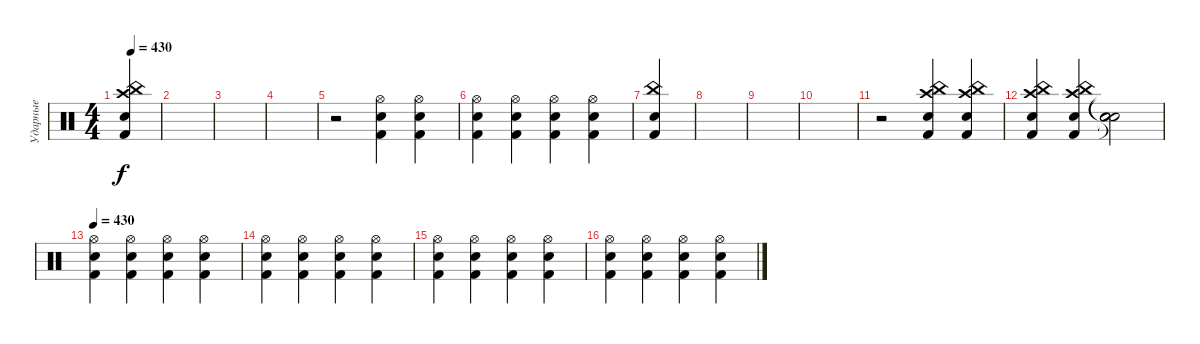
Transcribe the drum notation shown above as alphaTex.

\track ("Ударные" "Ударные") {instrument percussion}
\staff {score}
\articulation defaults
\ts (4 4)
\tempo 430
\clef neutral
\ks c
("Kick (hit) 2" "Crash high (hit)" "China (hit)" "Electric Snare (hit)").4{dy f} |
|
|
|
r.2 ("Electric Snare (hit)" "Hi-Hat (open)" "Kick (hit) 2").4 ("Hi-Hat (open)" "Kick (hit) 2" "Electric Snare (hit)").4 |
("Kick (hit) 2" "Electric Snare (hit)" "Hi-Hat (open)").4 ("Hi-Hat (open)" "Kick (hit) 2" "Electric Snare (hit)").4 ("Electric Snare (hit)" "Kick (hit) 2" "Hi-Hat (open)").4 ("Hi-Hat (open)" "Kick (hit) 2" "Electric Snare (hit)").4 |
("China (hit)" "Electric Snare (hit)" "Kick (hit) 2").4 |
|
|
|
r.2 ("Electric Snare (hit)" "Kick (hit) 2" "Crash high (hit)" "China (hit)").4 ("China (hit)" "Crash high (hit)" "Kick (hit) 2" "Electric Snare (hit)").4 |
("Electric Snare (hit)" "Kick (hit) 2" "Crash high (hit)" "China (hit)").4 ("China (hit)" "Crash high (hit)" "Kick (hit) 2" "Electric Snare (hit)").4 ("Snare (hit)"{t} "Snare (hit)"{t} "Snare (hit)"{t} "Snare (hit)"{t}).2 |
\tempo 430
("Kick (hit) 2" "Electric Snare (hit)" "Hi-Hat (open)").4 ("Hi-Hat (open)" "Kick (hit) 2" "Electric Snare (hit)").4 ("Electric Snare (hit)" "Kick (hit) 2" "Hi-Hat (open)").4 ("Hi-Hat (open)" "Kick (hit) 2" "Electric Snare (hit)").4 |
("Kick (hit) 2" "Electric Snare (hit)" "Hi-Hat (open)").4 ("Hi-Hat (open)" "Kick (hit) 2" "Electric Snare (hit)").4 ("Electric Snare (hit)" "Kick (hit) 2" "Hi-Hat (open)").4 ("Hi-Hat (open)" "Kick (hit) 2" "Electric Snare (hit)").4 |
("Kick (hit) 2" "Electric Snare (hit)" "Hi-Hat (open)").4 ("Hi-Hat (open)" "Kick (hit) 2" "Electric Snare (hit)").4 ("Electric Snare (hit)" "Kick (hit) 2" "Hi-Hat (open)").4 ("Hi-Hat (open)" "Kick (hit) 2" "Electric Snare (hit)").4 |
("Kick (hit) 2" "Electric Snare (hit)" "Hi-Hat (open)").4 ("Hi-Hat (open)" "Kick (hit) 2" "Electric Snare (hit)").4 ("Electric Snare (hit)" "Kick (hit) 2" "Hi-Hat (open)").4 ("Hi-Hat (open)" "Kick (hit) 2" "Electric Snare (hit)").4
